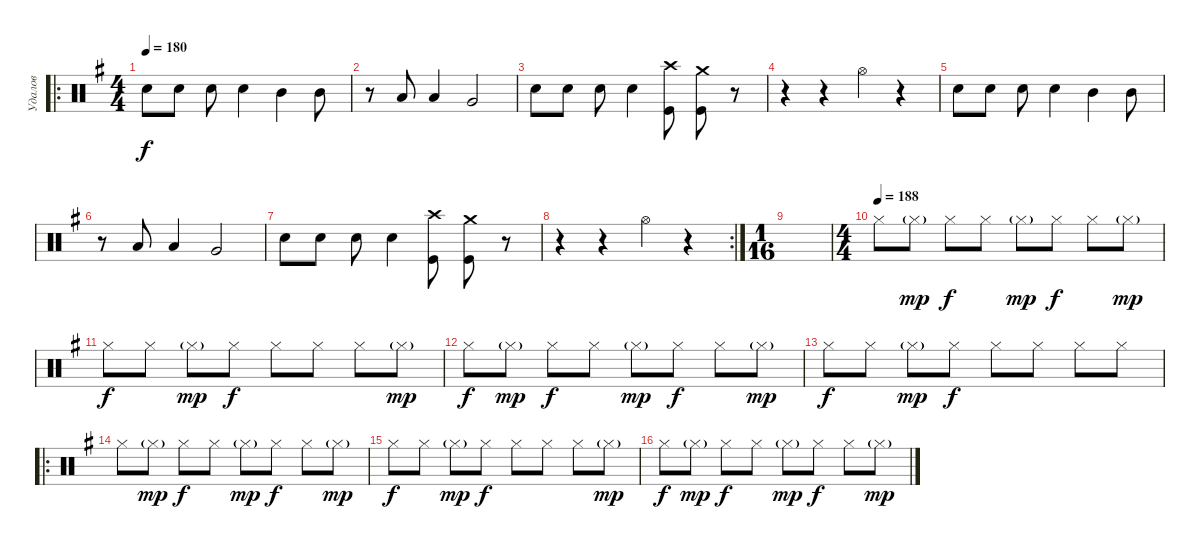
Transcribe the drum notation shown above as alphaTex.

\track ("Удалов" "Удалов") {instrument percussion}
\staff {score}
\articulation defaults
\ro
\ts (4 4)
\tempo 180
\clef neutral
\ks g "Snare (hit) 2".8{dy f} "Snare (hit) 2".8 "Snare (hit) 2".8 "Snare (hit) 2".4 "Mid Tom (hit)".4 "Mid Tom (hit)".8
|
r.8 "Low Tom (hit)".8 "Low Tom (hit)".4 "Very Low Tom (hit)".2 |
"Snare (hit) 2".8 "Snare (hit) 2".8 "Snare (hit) 2".8 "Snare (hit) 2".4 ("Crash high (hit)" "Kick (hit)").8 ("Crash medium (hit)" "Kick (hit)").8 r.8 |
r.4 r.4 "Hi-Hat (open)".4 r.4 |
"Snare (hit) 2".8 "Snare (hit) 2".8 "Snare (hit) 2".8 "Snare (hit) 2".4 "Mid Tom (hit)".4 "Mid Tom (hit)".8 |
r.8 "Low Tom (hit)".8 "Low Tom (hit)".4 "Very Low Tom (hit)".2 |
"Snare (hit) 2".8 "Snare (hit) 2".8 "Snare (hit) 2".8 "Snare (hit) 2".4 ("Crash high (hit)" "Kick (hit)").8 ("Crash medium (hit)" "Kick (hit)").8 r.8 |
\rc 2
r.4 r.4 "Hi-Hat (open)".4 r.4 |
\ts (1 16)
|
\ts (4 4)
\tempo (188)
"Hi-Hat (closed)".8 "Hi-Hat (closed)"{g}.8{dy mp} "Hi-Hat (closed)".8{dy f} "Hi-Hat (closed)".8 "Hi-Hat (closed)"{g}.8{dy mp} "Hi-Hat (closed)".8{dy f} "Hi-Hat (closed)".8 "Hi-Hat (closed)"{g}.8{dy mp} |
"Hi-Hat (closed)".8{dy f} "Hi-Hat (closed)".8 "Hi-Hat (closed)"{g}.8{dy mp} "Hi-Hat (closed)".8{dy f} "Hi-Hat (closed)".8 "Hi-Hat (closed)".8 "Hi-Hat (closed)".8 "Hi-Hat (closed)"{g}.8{dy mp} |
"Hi-Hat (closed)".8{dy f} "Hi-Hat (closed)"{g}.8{dy mp} "Hi-Hat (closed)".8{dy f} "Hi-Hat (closed)".8 "Hi-Hat (closed)"{g}.8{dy mp} "Hi-Hat (closed)".8{dy f} "Hi-Hat (closed)".8 "Hi-Hat (closed)"{g}.8{dy mp} |
"Hi-Hat (closed)".8{dy f} "Hi-Hat (closed)".8 "Hi-Hat (closed)"{g}.8{dy mp} "Hi-Hat (closed)".8{dy f} "Hi-Hat (closed)".8 "Hi-Hat (closed)".8 "Hi-Hat (closed)".8 "Hi-Hat (closed)".8 |
\ro "Hi-Hat (closed)".8 "Hi-Hat (closed)"{g}.8{dy mp} "Hi-Hat (closed)".8{dy f} "Hi-Hat (closed)".8 "Hi-Hat (closed)"{g}.8{dy mp} "Hi-Hat (closed)".8{dy f} "Hi-Hat (closed)".8 "Hi-Hat (closed)"{g}.8{dy mp}
|
"Hi-Hat (closed)".8{dy f} "Hi-Hat (closed)".8 "Hi-Hat (closed)"{g}.8{dy mp} "Hi-Hat (closed)".8{dy f} "Hi-Hat (closed)".8 "Hi-Hat (closed)".8 "Hi-Hat (closed)".8 "Hi-Hat (closed)"{g}.8{dy mp} |
"Hi-Hat (closed)".8{dy f} "Hi-Hat (closed)"{g}.8{dy mp} "Hi-Hat (closed)".8{dy f} "Hi-Hat (closed)".8 "Hi-Hat (closed)"{g}.8{dy mp} "Hi-Hat (closed)".8{dy f} "Hi-Hat (closed)".8 "Hi-Hat (closed)"{g}.8{dy mp}
